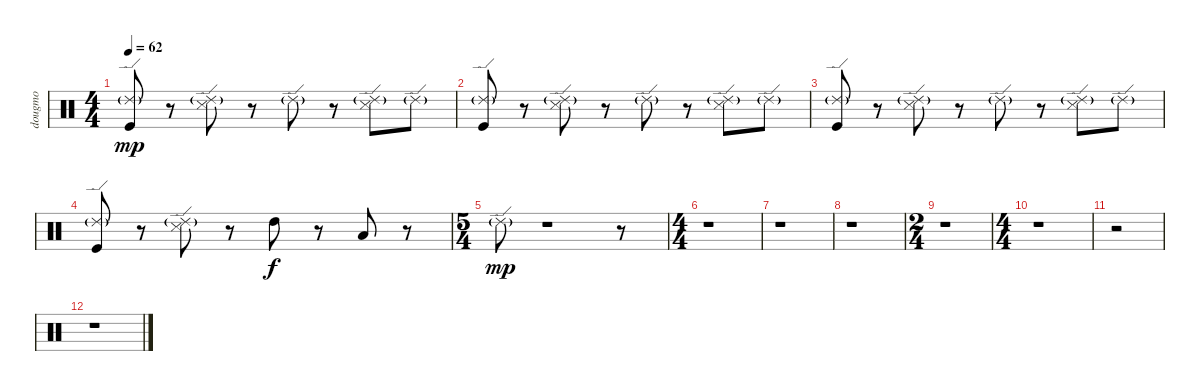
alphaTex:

\track ("dougmo" "dougmo") {instrument percussion}
\staff {score}
\articulation defaults
\ts (4 4)
\tempo 62
\clef neutral
\ks c
("Kick (hit)" "Ride (edge) 2"{g}).8{dy mp} r.8 ("Snare (side stick) 3" "Ride (edge) 2"{g}).8 r.8 "Ride (edge) 2"{g}.8 r.8 ("Snare (side stick) 3" "Ride (edge) 2"{g}).8 "Ride (edge) 2"{g}.8 |
("Kick (hit)" "Ride (edge) 2"{g}).8 r.8 ("Snare (side stick) 3" "Ride (edge) 2"{g}).8 r.8 "Ride (edge) 2"{g}.8 r.8 ("Snare (side stick) 3" "Ride (edge) 2"{g}).8 "Ride (edge) 2"{g}.8 |
("Kick (hit)" "Ride (edge) 2"{g}).8 r.8 ("Snare (side stick) 3" "Ride (edge) 2"{g}).8 r.8 "Ride (edge) 2"{g}.8 r.8 ("Snare (side stick) 3" "Ride (edge) 2"{g}).8 "Ride (edge) 2"{g}.8 |
("Kick (hit)" "Ride (edge) 2"{g}).8 r.8 ("Snare (side stick) 3" "Ride (edge) 2"{g}).8 r.8 "High Tom (hit)".8{dy f} r.8 "Low Tom (hit)".8 r.8 |
\ts (5 4)
"Ride (edge) 2"{g}.8{dy mp} r.1 r.8 |
\ts (4 4)
r.1 |
r.1 |
r.1 |
\ts (2 4)
r.1 |
\ts (4 4)
r.1 |
r.2 |
r.1
